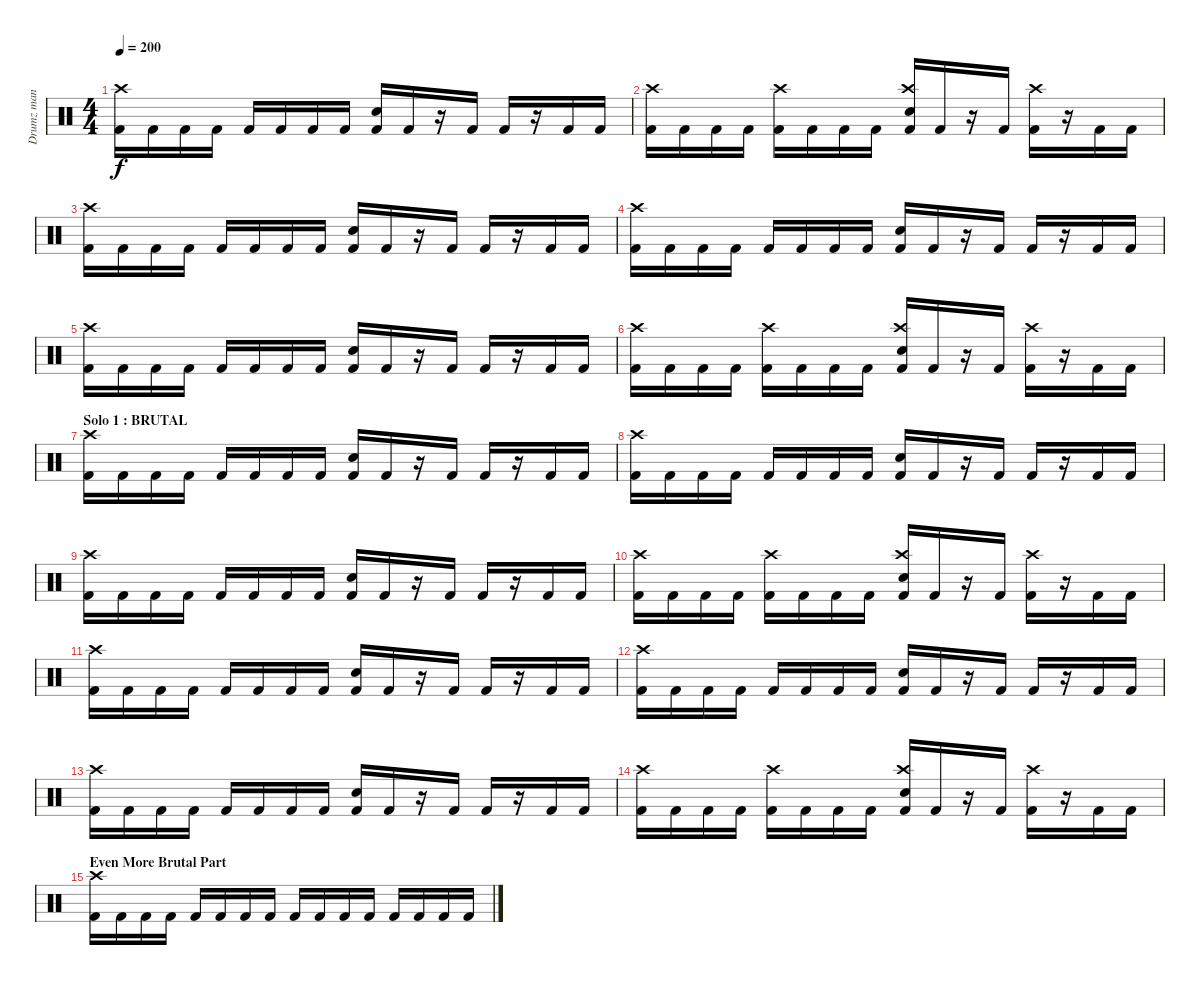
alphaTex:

\track ("Drumz man" "Drumz man") {instrument percussion}
\staff {score}
\articulation defaults
\ts (4 4)
\tempo 200
\clef neutral
\ks c
("Kick (hit) 2" "Crash high (hit)").16{dy f} "Kick (hit) 2".16 "Kick (hit) 2".16 "Kick (hit) 2".16 "Kick (hit) 2".16 "Kick (hit) 2".16 "Kick (hit) 2".16 "Kick (hit) 2".16 ("Kick (hit) 2" "Snare (hit) 2").16 "Kick (hit) 2".16 r.16 "Kick (hit) 2".16 "Kick (hit) 2".16 r.16 "Kick (hit) 2".16 "Kick (hit) 2".16 |
("Kick (hit) 2" "Crash high (hit)").16 "Kick (hit) 2".16 "Kick (hit) 2".16 "Kick (hit) 2".16 ("Kick (hit) 2" "Crash high (hit)").16 "Kick (hit) 2".16 "Kick (hit) 2".16 "Kick (hit) 2".16 ("Kick (hit) 2" "Snare (hit) 2" "Crash high (hit)").16 "Kick (hit) 2".16 r.16 "Kick (hit) 2".16 ("Kick (hit) 2" "Crash high (hit)").16 r.16 "Kick (hit) 2".16 "Kick (hit) 2".16 |
("Kick (hit) 2" "Crash high (hit)").16 "Kick (hit) 2".16 "Kick (hit) 2".16 "Kick (hit) 2".16 "Kick (hit) 2".16 "Kick (hit) 2".16 "Kick (hit) 2".16 "Kick (hit) 2".16 ("Kick (hit) 2" "Snare (hit) 2").16 "Kick (hit) 2".16 r.16 "Kick (hit) 2".16 "Kick (hit) 2".16 r.16 "Kick (hit) 2".16 "Kick (hit) 2".16 |
("Kick (hit) 2" "Crash high (hit)").16 "Kick (hit) 2".16 "Kick (hit) 2".16 "Kick (hit) 2".16 "Kick (hit) 2".16 "Kick (hit) 2".16 "Kick (hit) 2".16 "Kick (hit) 2".16 ("Kick (hit) 2" "Snare (hit) 2").16 "Kick (hit) 2".16 r.16 "Kick (hit) 2".16 "Kick (hit) 2".16 r.16 "Kick (hit) 2".16 "Kick (hit) 2".16 |
("Kick (hit) 2" "Crash high (hit)").16 "Kick (hit) 2".16 "Kick (hit) 2".16 "Kick (hit) 2".16 "Kick (hit) 2".16 "Kick (hit) 2".16 "Kick (hit) 2".16 "Kick (hit) 2".16 ("Kick (hit) 2" "Snare (hit) 2").16 "Kick (hit) 2".16 r.16 "Kick (hit) 2".16 "Kick (hit) 2".16 r.16 "Kick (hit) 2".16 "Kick (hit) 2".16 |
("Kick (hit) 2" "Crash high (hit)").16 "Kick (hit) 2".16 "Kick (hit) 2".16 "Kick (hit) 2".16 ("Kick (hit) 2" "Crash high (hit)").16 "Kick (hit) 2".16 "Kick (hit) 2".16 "Kick (hit) 2".16 ("Kick (hit) 2" "Snare (hit) 2" "Crash high (hit)").16 "Kick (hit) 2".16 r.16 "Kick (hit) 2".16 ("Kick (hit) 2" "Crash high (hit)").16 r.16 "Kick (hit) 2".16 "Kick (hit) 2".16 |
\section ("" "Solo 1 : BRUTAL")
("Kick (hit) 2" "Crash high (hit)").16 "Kick (hit) 2".16 "Kick (hit) 2".16 "Kick (hit) 2".16 "Kick (hit) 2".16 "Kick (hit) 2".16 "Kick (hit) 2".16 "Kick (hit) 2".16 ("Kick (hit) 2" "Snare (hit) 2").16 "Kick (hit) 2".16 r.16 "Kick (hit) 2".16 "Kick (hit) 2".16 r.16 "Kick (hit) 2".16 "Kick (hit) 2".16 |
("Kick (hit) 2" "Crash high (hit)").16 "Kick (hit) 2".16 "Kick (hit) 2".16 "Kick (hit) 2".16 "Kick (hit) 2".16 "Kick (hit) 2".16 "Kick (hit) 2".16 "Kick (hit) 2".16 ("Kick (hit) 2" "Snare (hit) 2").16 "Kick (hit) 2".16 r.16 "Kick (hit) 2".16 "Kick (hit) 2".16 r.16 "Kick (hit) 2".16 "Kick (hit) 2".16 |
("Kick (hit) 2" "Crash high (hit)").16 "Kick (hit) 2".16 "Kick (hit) 2".16 "Kick (hit) 2".16 "Kick (hit) 2".16 "Kick (hit) 2".16 "Kick (hit) 2".16 "Kick (hit) 2".16 ("Kick (hit) 2" "Snare (hit) 2").16 "Kick (hit) 2".16 r.16 "Kick (hit) 2".16 "Kick (hit) 2".16 r.16 "Kick (hit) 2".16 "Kick (hit) 2".16 |
("Kick (hit) 2" "Crash high (hit)").16 "Kick (hit) 2".16 "Kick (hit) 2".16 "Kick (hit) 2".16 ("Kick (hit) 2" "Crash high (hit)").16 "Kick (hit) 2".16 "Kick (hit) 2".16 "Kick (hit) 2".16 ("Kick (hit) 2" "Snare (hit) 2" "Crash high (hit)").16 "Kick (hit) 2".16 r.16 "Kick (hit) 2".16 ("Kick (hit) 2" "Crash high (hit)").16 r.16 "Kick (hit) 2".16 "Kick (hit) 2".16 |
("Kick (hit) 2" "Crash high (hit)").16 "Kick (hit) 2".16 "Kick (hit) 2".16 "Kick (hit) 2".16 "Kick (hit) 2".16 "Kick (hit) 2".16 "Kick (hit) 2".16 "Kick (hit) 2".16 ("Kick (hit) 2" "Snare (hit) 2").16 "Kick (hit) 2".16 r.16 "Kick (hit) 2".16 "Kick (hit) 2".16 r.16 "Kick (hit) 2".16 "Kick (hit) 2".16 |
("Kick (hit) 2" "Crash high (hit)").16 "Kick (hit) 2".16 "Kick (hit) 2".16 "Kick (hit) 2".16 "Kick (hit) 2".16 "Kick (hit) 2".16 "Kick (hit) 2".16 "Kick (hit) 2".16 ("Kick (hit) 2" "Snare (hit) 2").16 "Kick (hit) 2".16 r.16 "Kick (hit) 2".16 "Kick (hit) 2".16 r.16 "Kick (hit) 2".16 "Kick (hit) 2".16 |
("Kick (hit) 2" "Crash high (hit)").16 "Kick (hit) 2".16 "Kick (hit) 2".16 "Kick (hit) 2".16 "Kick (hit) 2".16 "Kick (hit) 2".16 "Kick (hit) 2".16 "Kick (hit) 2".16 ("Kick (hit) 2" "Snare (hit) 2").16 "Kick (hit) 2".16 r.16 "Kick (hit) 2".16 "Kick (hit) 2".16 r.16 "Kick (hit) 2".16 "Kick (hit) 2".16 |
("Kick (hit) 2" "Crash high (hit)").16 "Kick (hit) 2".16 "Kick (hit) 2".16 "Kick (hit) 2".16 ("Kick (hit) 2" "Crash high (hit)").16 "Kick (hit) 2".16 "Kick (hit) 2".16 "Kick (hit) 2".16 ("Kick (hit) 2" "Snare (hit) 2" "Crash high (hit)").16 "Kick (hit) 2".16 r.16 "Kick (hit) 2".16 ("Kick (hit) 2" "Crash high (hit)").16 r.16 "Kick (hit) 2".16 "Kick (hit) 2".16 |
\section ("" "Even More Brutal Part")
("Kick (hit) 2" "Crash high (hit)").16 "Kick (hit) 2".16 "Kick (hit) 2".16 "Kick (hit) 2".16 "Kick (hit) 2".16 "Kick (hit) 2".16 "Kick (hit) 2".16 "Kick (hit) 2".16 "Kick (hit) 2".16 "Kick (hit) 2".16 "Kick (hit) 2".16 "Kick (hit) 2".16 "Kick (hit) 2".16 "Kick (hit) 2".16 "Kick (hit) 2".16 "Kick (hit) 2".16
